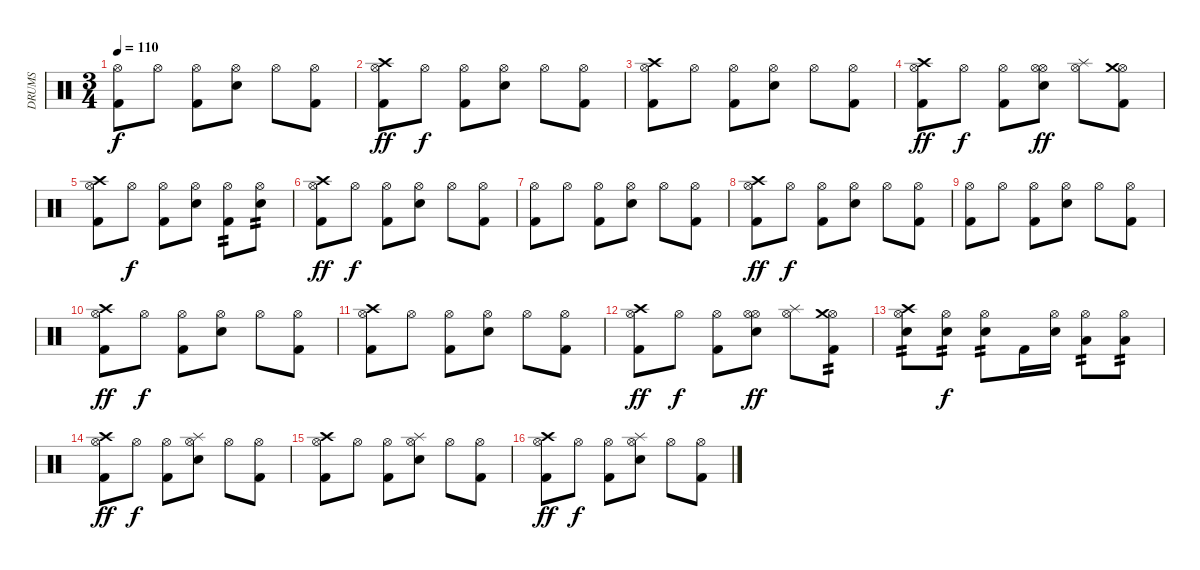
\track ("DRUMS" "DRUMS") {instrument percussion}
\staff {score}
\articulation defaults
\ts (3 4)
\tempo 110
\clef neutral
\ks c
("Kick (hit) 2" "Hi-Hat (open)").8{dy f} "Hi-Hat (open)".8 ("Kick (hit) 2" "Hi-Hat (open)").8 ("Electric Snare (hit)" "Hi-Hat (open)").8 "Hi-Hat (open)".8 ("Kick (hit) 2" "Hi-Hat (open)").8 |
("Kick (hit) 2" "Hi-Hat (open)" "Crash high (hit)").8{dy ff} "Hi-Hat (open)".8{dy f} ("Kick (hit) 2" "Hi-Hat (open)").8 ("Electric Snare (hit)" "Hi-Hat (open)").8 "Hi-Hat (open)".8 ("Kick (hit) 2" "Hi-Hat (open)").8 |
("Kick (hit) 2" "Hi-Hat (open)" "Crash high (hit)").8 "Hi-Hat (open)".8 ("Kick (hit) 2" "Hi-Hat (open)").8 ("Electric Snare (hit)" "Hi-Hat (open)").8 "Hi-Hat (open)".8 ("Kick (hit) 2" "Hi-Hat (open)").8 |
("Kick (hit) 2" "Hi-Hat (open)" "Crash high (hit)").8{dy ff} "Hi-Hat (open)".8{dy f} ("Kick (hit) 2" "Hi-Hat (open)").8 ("Electric Snare (hit)" "Hi-Hat (open)" "Hi-Hat (open)").8{dy ff} ("Hi-Hat (open)" "Splash (hit)").8 ("Kick (hit) 2" "Hi-Hat (open)" "Crash medium (hit)").8 |
("Kick (hit) 2" "Hi-Hat (open)" "Crash high (hit)").8 "Hi-Hat (open)".8{dy f} ("Kick (hit) 2" "Hi-Hat (open)").8 ("Electric Snare (hit)" "Hi-Hat (open)").8 ("Kick (hit) 2" "Hi-Hat (open)").8{tp 2} ("Electric Snare (hit)" "Hi-Hat (open)").8{tp 2} |
("Kick (hit) 2" "Hi-Hat (open)" "Crash high (hit)").8{dy ff} "Hi-Hat (open)".8{dy f} ("Kick (hit) 2" "Hi-Hat (open)").8 ("Electric Snare (hit)" "Hi-Hat (open)").8 "Hi-Hat (open)".8 ("Kick (hit) 2" "Hi-Hat (open)").8 |
("Kick (hit) 2" "Hi-Hat (open)").8 "Hi-Hat (open)".8 ("Kick (hit) 2" "Hi-Hat (open)").8 ("Electric Snare (hit)" "Hi-Hat (open)").8 "Hi-Hat (open)".8 ("Kick (hit) 2" "Hi-Hat (open)").8 |
("Kick (hit) 2" "Hi-Hat (open)" "Crash high (hit)").8{dy ff} "Hi-Hat (open)".8{dy f} ("Kick (hit) 2" "Hi-Hat (open)").8 ("Electric Snare (hit)" "Hi-Hat (open)").8 "Hi-Hat (open)".8 ("Kick (hit) 2" "Hi-Hat (open)").8 |
("Kick (hit) 2" "Hi-Hat (open)").8 "Hi-Hat (open)".8 ("Kick (hit) 2" "Hi-Hat (open)").8 ("Electric Snare (hit)" "Hi-Hat (open)").8 "Hi-Hat (open)".8 ("Kick (hit) 2" "Hi-Hat (open)").8 |
("Kick (hit) 2" "Hi-Hat (open)" "Crash high (hit)").8{dy ff} "Hi-Hat (open)".8{dy f} ("Kick (hit) 2" "Hi-Hat (open)").8 ("Electric Snare (hit)" "Hi-Hat (open)").8 "Hi-Hat (open)".8 ("Kick (hit) 2" "Hi-Hat (open)").8 |
("Kick (hit) 2" "Hi-Hat (open)" "Crash high (hit)").8 "Hi-Hat (open)".8 ("Kick (hit) 2" "Hi-Hat (open)").8 ("Electric Snare (hit)" "Hi-Hat (open)").8 "Hi-Hat (open)".8 ("Kick (hit) 2" "Hi-Hat (open)").8 |
("Kick (hit) 2" "Hi-Hat (open)" "Crash high (hit)").8{dy ff} "Hi-Hat (open)".8{dy f} ("Kick (hit) 2" "Hi-Hat (open)").8 ("Electric Snare (hit)" "Hi-Hat (open)" "Hi-Hat (open)").8{dy ff} ("Hi-Hat (open)" "Splash (hit)").8 ("Kick (hit) 2" "Hi-Hat (open)" "Crash medium (hit)").8{tp 2} |
("Electric Snare (hit)" "Hi-Hat (open)" "Crash high (hit)").8{tp 2} ("Electric Snare (hit)" "Hi-Hat (open)").8{tp 2 dy f} ("Electric Snare (hit)" "Hi-Hat (open)").8{tp 2} "Kick (hit) 2".16 ("Electric Snare (hit)" "Hi-Hat (open)").16 ("Low Tom (hit)" "Hi-Hat (open)").8{tp 2} ("Low Tom (hit)" "Hi-Hat (open)").8{tp 2} |
("Kick (hit) 2" "Hi-Hat (open)" "Crash high (hit)").8{dy ff volume 8} "Hi-Hat (open)".8{dy f} ("Kick (hit) 2" "Hi-Hat (open)").8 ("Electric Snare (hit)" "Hi-Hat (open)" "Splash (hit)").8 "Hi-Hat (open)".8 ("Kick (hit) 2" "Hi-Hat (open)").8 |
("Kick (hit) 2" "Hi-Hat (open)" "Crash high (hit)").8 "Hi-Hat (open)".8 ("Kick (hit) 2" "Hi-Hat (open)").8 ("Electric Snare (hit)" "Hi-Hat (open)" "Splash (hit)").8 "Hi-Hat (open)".8 ("Kick (hit) 2" "Hi-Hat (open)").8 |
("Kick (hit) 2" "Hi-Hat (open)" "Crash high (hit)").8{dy ff} "Hi-Hat (open)".8{dy f} ("Kick (hit) 2" "Hi-Hat (open)").8 ("Electric Snare (hit)" "Hi-Hat (open)" "Splash (hit)").8 "Hi-Hat (open)".8 ("Kick (hit) 2" "Hi-Hat (open)").8
